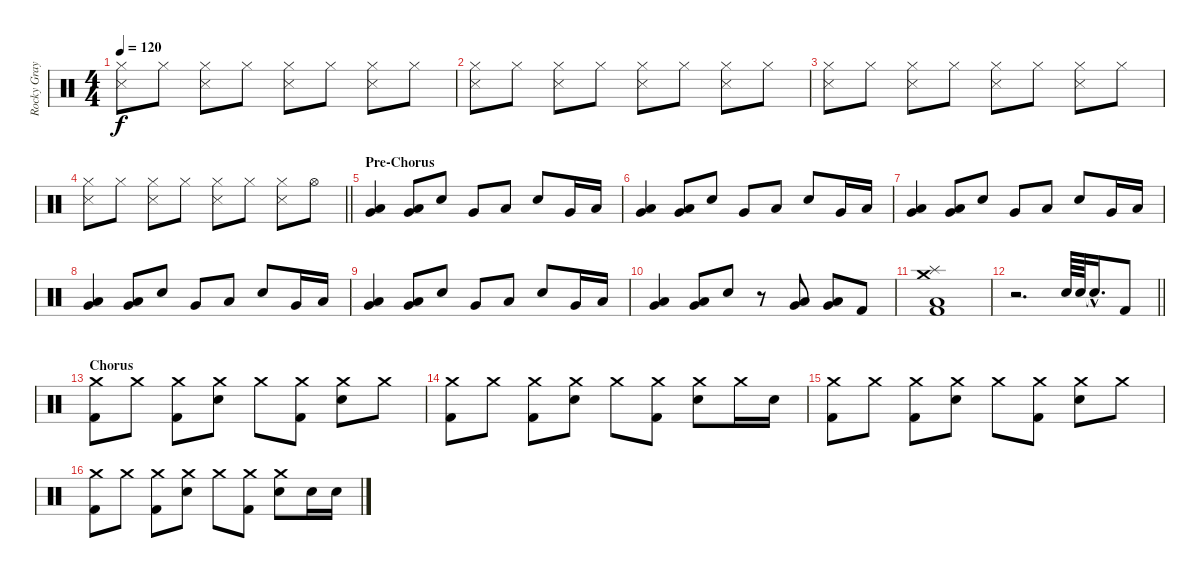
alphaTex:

\track ("Rocky Gray" "Rocky Gray") {instrument percussion}
\staff {score}
\articulation defaults
\ts (4 4)
\tempo 120
\clef neutral
\ks c
("Hi-Hat (closed)" "Snare (side stick) 3").8{dy f} "Hi-Hat (closed)".8 ("Hi-Hat (closed)" "Snare (side stick) 3").8 "Hi-Hat (closed)".8 ("Hi-Hat (closed)" "Snare (side stick) 3").8 "Hi-Hat (closed)".8 ("Hi-Hat (closed)" "Snare (side stick) 3").8 "Hi-Hat (closed)".8 |
("Hi-Hat (closed)" "Snare (side stick) 3").8 "Hi-Hat (closed)".8 ("Hi-Hat (closed)" "Snare (side stick) 3").8 "Hi-Hat (closed)".8 ("Hi-Hat (closed)" "Snare (side stick) 3").8 "Hi-Hat (closed)".8 ("Hi-Hat (closed)" "Snare (side stick) 3").8 "Hi-Hat (closed)".8 |
("Hi-Hat (closed)" "Snare (side stick) 3").8 "Hi-Hat (closed)".8 ("Hi-Hat (closed)" "Snare (side stick) 3").8 "Hi-Hat (closed)".8 ("Hi-Hat (closed)" "Snare (side stick) 3").8 "Hi-Hat (closed)".8 ("Hi-Hat (closed)" "Snare (side stick) 3").8 "Hi-Hat (closed)".8 |
\barLineRight lightlight
("Hi-Hat (closed)" "Snare (side stick) 3").8 "Hi-Hat (closed)".8 ("Hi-Hat (closed)" "Snare (side stick) 3").8 "Hi-Hat (closed)".8 ("Hi-Hat (closed)" "Snare (side stick) 3").8 "Hi-Hat (closed)".8 ("Hi-Hat (closed)" "Snare (side stick) 3").8 "Hi-Hat (open)".8 |
\section ("" "Pre-Chorus")
("Low Floor Tom (hit)" "Very Low Tom (hit)").4 ("Low Floor Tom (hit)" "Very Low Tom (hit)").8 "Electric Snare (hit)".8 "Very Low Tom (hit)".8 "Low Floor Tom (hit)".8 "Electric Snare (hit)".8 "Very Low Tom (hit)".16 "Low Floor Tom (hit)".16 |
("Low Floor Tom (hit)" "Very Low Tom (hit)").4 ("Low Floor Tom (hit)" "Very Low Tom (hit)").8 "Electric Snare (hit)".8 "Very Low Tom (hit)".8 "Low Floor Tom (hit)".8 "Electric Snare (hit)".8 "Very Low Tom (hit)".16 "Low Floor Tom (hit)".16 |
("Low Floor Tom (hit)" "Very Low Tom (hit)").4 ("Low Floor Tom (hit)" "Very Low Tom (hit)").8 "Electric Snare (hit)".8 "Very Low Tom (hit)".8 "Low Floor Tom (hit)".8 "Electric Snare (hit)".8 "Very Low Tom (hit)".16 "Low Floor Tom (hit)".16 |
("Low Floor Tom (hit)" "Very Low Tom (hit)").4 ("Low Floor Tom (hit)" "Very Low Tom (hit)").8 "Electric Snare (hit)".8 "Very Low Tom (hit)".8 "Low Floor Tom (hit)".8 "Electric Snare (hit)".8 "Very Low Tom (hit)".16 "Low Floor Tom (hit)".16 |
("Low Floor Tom (hit)" "Very Low Tom (hit)").4 ("Low Floor Tom (hit)" "Very Low Tom (hit)").8 "Electric Snare (hit)".8 "Very Low Tom (hit)".8 "Low Floor Tom (hit)".8 "Electric Snare (hit)".8 "Very Low Tom (hit)".16 "Low Floor Tom (hit)".16 |
("Low Floor Tom (hit)" "Very Low Tom (hit)").4 ("Low Floor Tom (hit)" "Very Low Tom (hit)").8 "Electric Snare (hit)".8 r.8 ("Very Low Tom (hit)" "Low Tom (hit)").8 ("Low Floor Tom (hit)" "Very Low Tom (hit)").8 "Kick (hit) 2".8 |
("Splash (hit)" "Low Floor Tom (hit)" "Crash medium (hit)" "Kick (hit) 2").1 |
\barLineRight lightlight
r.2{d} "Electric Snare (hit)".64 "Electric Snare (hit)".64 "Snare (hit)"{hac t}.16{d} "Kick (hit) 2".8 |
\section ("" "Chorus")
("Crash medium (hit)" "Kick (hit) 2").8 "Crash medium (hit)".8 ("Crash medium (hit)" "Kick (hit) 2").8 ("Crash medium (hit)" "Electric Snare (hit)").8 "Crash medium (hit)".8 ("Crash medium (hit)" "Kick (hit) 2").8 ("Crash medium (hit)" "Electric Snare (hit)").8 "Crash medium (hit)".8 |
("Crash medium (hit)" "Kick (hit) 2").8 "Crash medium (hit)".8 ("Crash medium (hit)" "Kick (hit) 2").8 ("Crash medium (hit)" "Electric Snare (hit)").8 "Crash medium (hit)".8 ("Crash medium (hit)" "Kick (hit) 2").8 ("Crash medium (hit)" "Electric Snare (hit)").8 "Crash medium (hit)".16 "Electric Snare (hit)".16 |
("Crash medium (hit)" "Kick (hit) 2").8 "Crash medium (hit)".8 ("Crash medium (hit)" "Kick (hit) 2").8 ("Crash medium (hit)" "Electric Snare (hit)").8 "Crash medium (hit)".8 ("Crash medium (hit)" "Kick (hit) 2").8 ("Crash medium (hit)" "Electric Snare (hit)").8 "Crash medium (hit)".8 |
("Crash medium (hit)" "Kick (hit) 2").8 "Crash medium (hit)".8 ("Crash medium (hit)" "Kick (hit) 2").8 ("Crash medium (hit)" "Electric Snare (hit)").8 "Crash medium (hit)".8 ("Crash medium (hit)" "Kick (hit) 2").8 ("Crash medium (hit)" "Electric Snare (hit)").8 "Electric Snare (hit)".16 "Electric Snare (hit)".16
